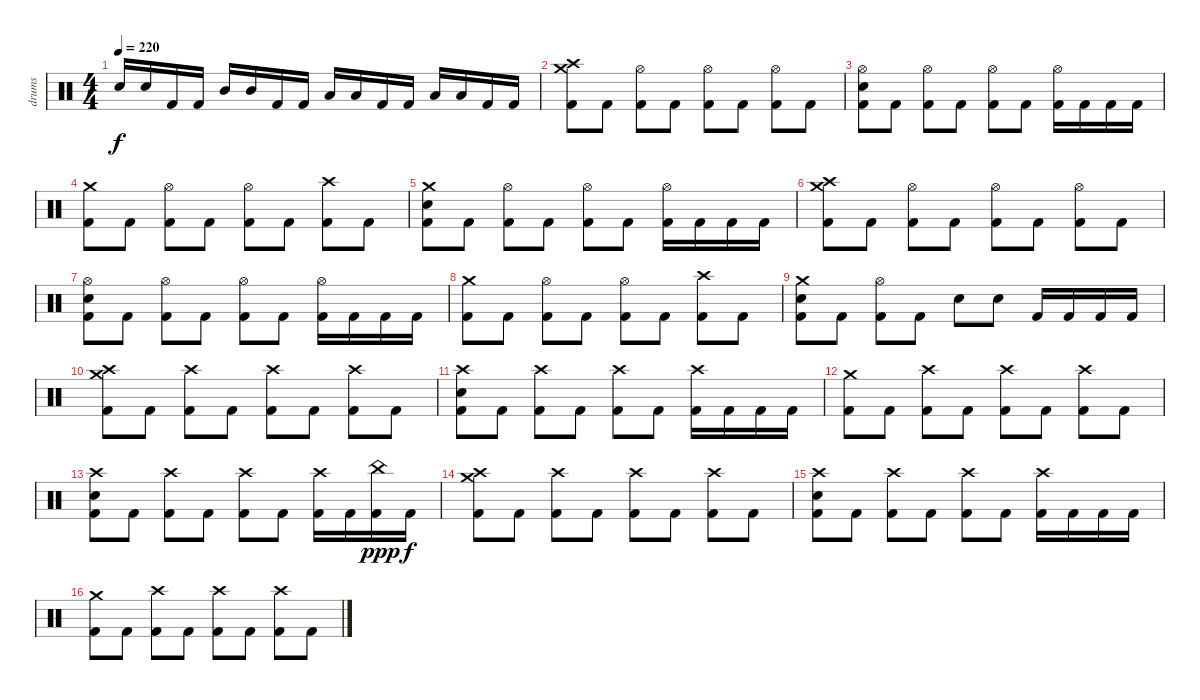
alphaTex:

\track ("drums" "drums") {instrument percussion}
\staff {score}
\articulation defaults
\ts (4 4)
\tempo 220
\clef neutral
\ks c "Electric Snare (hit)".16{dy f} "Electric Snare (hit)".16 "Kick (hit) 2".16 "Kick (hit) 2".16 "Mid Tom (hit)".16 "Mid Tom (hit)".16 "Kick (hit) 2".16 "Kick (hit) 2".16 "Low Floor Tom (hit)".16 "Low Tom (hit)".16 "Kick (hit) 2".16 "Kick (hit) 2".16 "Low Floor Tom (hit)".16 "Low Floor Tom (hit)".16 "Kick (hit) 2".16 "Kick (hit) 2".16
|
("Crash high (hit)" "Crash medium (hit)" "Kick (hit) 2").8 "Kick (hit) 2".8 ("Hi-Hat (open)" "Kick (hit) 2").8 "Kick (hit) 2".8 ("Hi-Hat (open)" "Kick (hit) 2").8 "Kick (hit) 2".8 ("Hi-Hat (open)" "Kick (hit) 2").8 "Kick (hit) 2".8 |
("Hi-Hat (open)" "Electric Snare (hit)" "Kick (hit) 2").8 "Kick (hit) 2".8 ("Hi-Hat (open)" "Kick (hit) 2").8 "Kick (hit) 2".8 ("Hi-Hat (open)" "Kick (hit) 2").8 "Kick (hit) 2".8 ("Hi-Hat (open)" "Kick (hit) 2").16 "Kick (hit) 2".16 "Kick (hit) 2".16 "Kick (hit) 2".16 |
("Crash medium (hit)" "Kick (hit) 2").8 "Kick (hit) 2".8 ("Hi-Hat (open)" "Kick (hit) 2").8 "Kick (hit) 2".8 ("Hi-Hat (open)" "Kick (hit) 2").8 "Kick (hit) 2".8 ("Crash high (hit)" "Kick (hit) 2").8 "Kick (hit) 2".8 |
("Crash medium (hit)" "Electric Snare (hit)" "Kick (hit) 2").8 "Kick (hit) 2".8 ("Hi-Hat (open)" "Kick (hit) 2").8 "Kick (hit) 2".8 ("Hi-Hat (open)" "Kick (hit) 2").8 "Kick (hit) 2".8 ("Hi-Hat (open)" "Kick (hit) 2").16 "Kick (hit) 2".16 "Kick (hit) 2".16 "Kick (hit) 2".16 |
("Crash high (hit)" "Crash medium (hit)" "Kick (hit) 2").8 "Kick (hit) 2".8 ("Hi-Hat (open)" "Kick (hit) 2").8 "Kick (hit) 2".8 ("Hi-Hat (open)" "Kick (hit) 2").8 "Kick (hit) 2".8 ("Hi-Hat (open)" "Kick (hit) 2").8 "Kick (hit) 2".8 |
("Hi-Hat (open)" "Electric Snare (hit)" "Kick (hit) 2").8 "Kick (hit) 2".8 ("Hi-Hat (open)" "Kick (hit) 2").8 "Kick (hit) 2".8 ("Hi-Hat (open)" "Kick (hit) 2").8 "Kick (hit) 2".8 ("Hi-Hat (open)" "Kick (hit) 2").16 "Kick (hit) 2".16 "Kick (hit) 2".16 "Kick (hit) 2".16 |
("Crash medium (hit)" "Kick (hit) 2").8 "Kick (hit) 2".8 ("Hi-Hat (open)" "Kick (hit) 2").8 "Kick (hit) 2".8 ("Hi-Hat (open)" "Kick (hit) 2").8 "Kick (hit) 2".8 ("Crash high (hit)" "Kick (hit) 2").8 "Kick (hit) 2".8 |
("Crash medium (hit)" "Electric Snare (hit)" "Kick (hit) 2").8 "Kick (hit) 2".8 ("Hi-Hat (open)" "Kick (hit) 2").8 "Kick (hit) 2".8 "Electric Snare (hit)".8 "Electric Snare (hit)".8 "Kick (hit) 2".16 "Kick (hit) 2".16 "Kick (hit) 2".16 "Kick (hit) 2".16 |
("Crash high (hit)" "Crash medium (hit)" "Kick (hit) 2").8 "Kick (hit) 2".8 ("Crash high (hit)" "Kick (hit) 2").8 "Kick (hit) 2".8 ("Crash high (hit)" "Kick (hit) 2").8 "Kick (hit) 2".8 ("Crash high (hit)" "Kick (hit) 2").8 "Kick (hit) 2".8 |
("Crash high (hit)" "Electric Snare (hit)" "Kick (hit) 2").8 "Kick (hit) 2".8 ("Crash high (hit)" "Kick (hit) 2").8 "Kick (hit) 2".8 ("Crash high (hit)" "Kick (hit) 2").8 "Kick (hit) 2".8 ("Crash high (hit)" "Kick (hit) 2").16 "Kick (hit) 2".16 "Kick (hit) 2".16 "Kick (hit) 2".16 |
("Crash medium (hit)" "Kick (hit) 2").8 "Kick (hit) 2".8 ("Crash high (hit)" "Kick (hit) 2").8 "Kick (hit) 2".8 ("Crash high (hit)" "Kick (hit) 2").8 "Kick (hit) 2".8 ("Crash high (hit)" "Kick (hit) 2").8 "Kick (hit) 2".8 |
("Crash high (hit)" "Electric Snare (hit)" "Kick (hit) 2").8 "Kick (hit) 2".8 ("Crash high (hit)" "Kick (hit) 2").8 "Kick (hit) 2".8 ("Crash high (hit)" "Kick (hit) 2").8 "Kick (hit) 2".8 ("Crash high (hit)" "Kick (hit) 2").16 "Kick (hit) 2".16 ("China (hit)" "Kick (hit) 2").16{dy ppp} "Kick (hit) 2".16{dy f} |
("Crash high (hit)" "Crash medium (hit)" "Kick (hit) 2").8 "Kick (hit) 2".8 ("Crash high (hit)" "Kick (hit) 2").8 "Kick (hit) 2".8 ("Crash high (hit)" "Kick (hit) 2").8 "Kick (hit) 2".8 ("Crash high (hit)" "Kick (hit) 2").8 "Kick (hit) 2".8 |
("Crash high (hit)" "Electric Snare (hit)" "Kick (hit) 2").8 "Kick (hit) 2".8 ("Crash high (hit)" "Kick (hit) 2").8 "Kick (hit) 2".8 ("Crash high (hit)" "Kick (hit) 2").8 "Kick (hit) 2".8 ("Crash high (hit)" "Kick (hit) 2").16 "Kick (hit) 2".16 "Kick (hit) 2".16 "Kick (hit) 2".16 |
("Crash medium (hit)" "Kick (hit) 2").8 "Kick (hit) 2".8 ("Crash high (hit)" "Kick (hit) 2").8 "Kick (hit) 2".8 ("Crash high (hit)" "Kick (hit) 2").8 "Kick (hit) 2".8 ("Crash high (hit)" "Kick (hit) 2").8 "Kick (hit) 2".8
